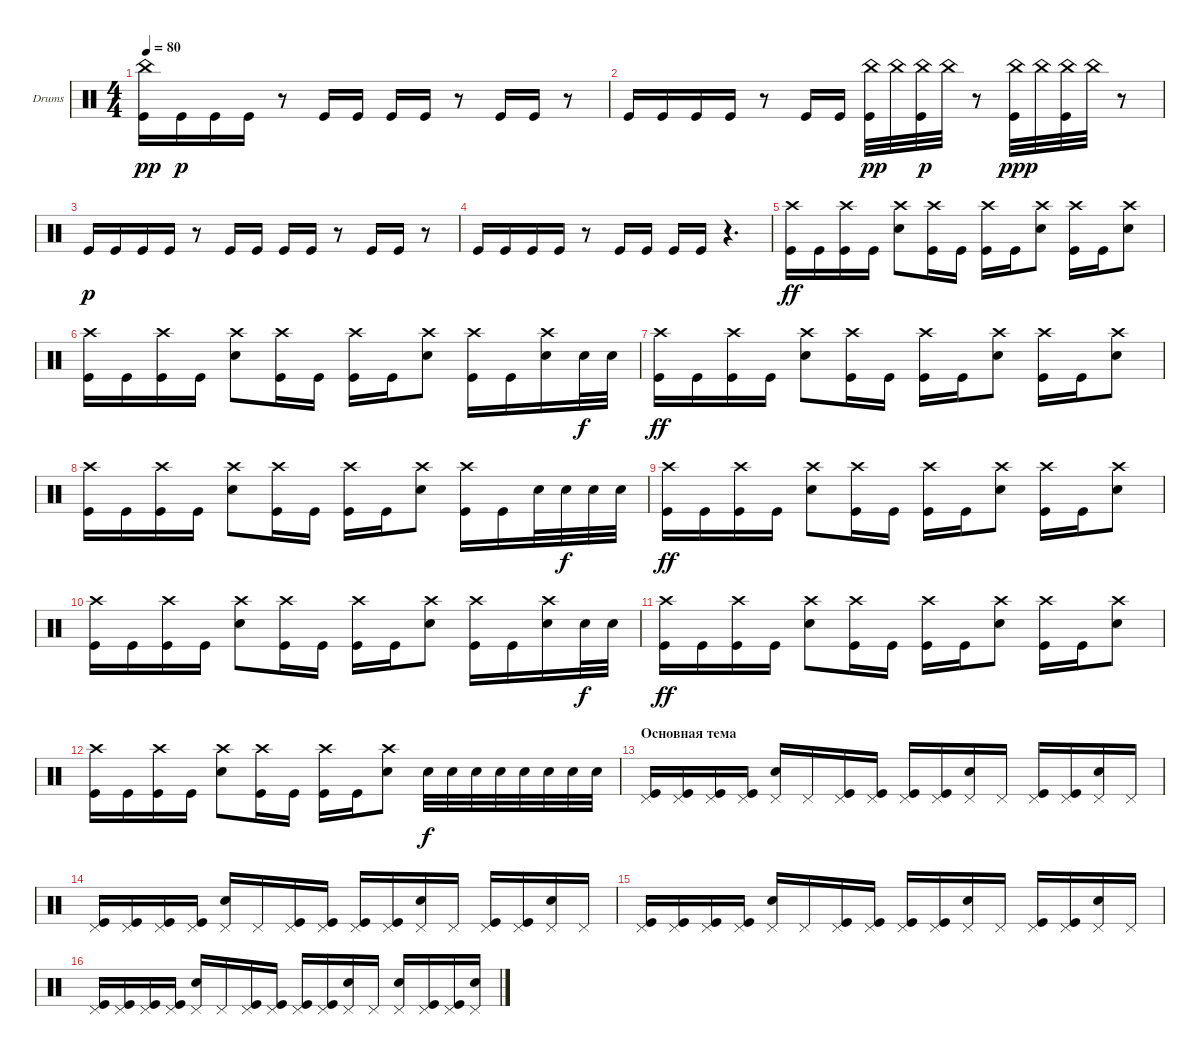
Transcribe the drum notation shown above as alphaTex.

\defaultSystemsLayout 4
\bracketExtendMode groupsimilarinstruments
\firstSystemTrackNameOrientation horizontal
\otherSystemsTrackNameOrientation horizontal
\track ("Drumkit" "Drums") {mute instrument percussion}
\staff {score}
\articulation defaults
\ts (4 4)
\tempo 80
\clef neutral
\ks c
("China (hit)" "Kick (hit)").16{dy pp} "Kick (hit)".16{dy p} "Kick (hit)".16 "Kick (hit)".16 r.8 "Kick (hit)".16 "Kick (hit)".16 "Kick (hit)".16 "Kick (hit)".16 r.8 "Kick (hit)".16 "Kick (hit)".16 r.8 |
"Kick (hit)".16 "Kick (hit)".16 "Kick (hit)".16 "Kick (hit)".16 r.8 "Kick (hit)".16 "Kick (hit)".16 ("China (hit)" "Kick (hit)").32{dy pp} "China (hit)".32 ("China (hit)" "Kick (hit)").32{dy p} "China (hit)".32 r.8 ("China (hit)" "Kick (hit)").32{dy ppp} "China (hit)".32 ("China (hit)" "Kick (hit)").32 "China (hit)".32 r.8 |
"Kick (hit)".16{dy p} "Kick (hit)".16 "Kick (hit)".16 "Kick (hit)".16 r.8 "Kick (hit)".16 "Kick (hit)".16 "Kick (hit)".16 "Kick (hit)".16 r.8 "Kick (hit)".16 "Kick (hit)".16 r.8 |
"Kick (hit)".16 "Kick (hit)".16 "Kick (hit)".16 "Kick (hit)".16 r.8 "Kick (hit)".16 "Kick (hit)".16 "Kick (hit)".16 "Kick (hit)".16 r.4{d} |
("Crash high (hit)" "Kick (hit)").16{dy ff} "Kick (hit)".16 ("Crash high (hit)" "Kick (hit)").16 "Kick (hit)".16 ("Crash high (hit)" "Snare (hit) 2").8 ("Crash high (hit)" "Kick (hit)").16 "Kick (hit)".16 ("Crash high (hit)" "Kick (hit)").16 "Kick (hit)".16 ("Crash high (hit)" "Snare (hit) 2").8 ("Crash high (hit)" "Kick (hit)").16 "Kick (hit)".16 ("Crash high (hit)" "Snare (hit) 2").8 |
("Crash high (hit)" "Kick (hit)").16 "Kick (hit)".16 ("Crash high (hit)" "Kick (hit)").16 "Kick (hit)".16 ("Crash high (hit)" "Snare (hit) 2").8 ("Crash high (hit)" "Kick (hit)").16 "Kick (hit)".16 ("Crash high (hit)" "Kick (hit)").16 "Kick (hit)".16 ("Crash high (hit)" "Snare (hit) 2").8 ("Crash high (hit)" "Kick (hit)").16 "Kick (hit)".16 ("Crash high (hit)" "Snare (hit) 2").16 "Snare (hit) 2".32{dy f} "Snare (hit) 2".32 |
("Crash high (hit)" "Kick (hit)").16{dy ff} "Kick (hit)".16 ("Crash high (hit)" "Kick (hit)").16 "Kick (hit)".16 ("Crash high (hit)" "Snare (hit) 2").8 ("Crash high (hit)" "Kick (hit)").16 "Kick (hit)".16 ("Crash high (hit)" "Kick (hit)").16 "Kick (hit)".16 ("Crash high (hit)" "Snare (hit) 2").8 ("Crash high (hit)" "Kick (hit)").16 "Kick (hit)".16 ("Crash high (hit)" "Snare (hit) 2").8 |
("Crash high (hit)" "Kick (hit)").16 "Kick (hit)".16 ("Crash high (hit)" "Kick (hit)").16 "Kick (hit)".16 ("Crash high (hit)" "Snare (hit) 2").8 ("Crash high (hit)" "Kick (hit)").16 "Kick (hit)".16 ("Crash high (hit)" "Kick (hit)").16 "Kick (hit)".16 ("Crash high (hit)" "Snare (hit) 2").8 ("Crash high (hit)" "Kick (hit)").16 "Kick (hit)".16 "Snare (hit) 2".32 "Snare (hit) 2".32{dy f} "Snare (hit) 2".32 "Snare (hit) 2".32 |
("Crash high (hit)" "Kick (hit)").16{dy ff} "Kick (hit)".16 ("Crash high (hit)" "Kick (hit)").16 "Kick (hit)".16 ("Crash high (hit)" "Snare (hit) 2").8 ("Crash high (hit)" "Kick (hit)").16 "Kick (hit)".16 ("Crash high (hit)" "Kick (hit)").16 "Kick (hit)".16 ("Crash high (hit)" "Snare (hit) 2").8 ("Crash high (hit)" "Kick (hit)").16 "Kick (hit)".16 ("Crash high (hit)" "Snare (hit) 2").8 |
("Crash high (hit)" "Kick (hit)").16 "Kick (hit)".16 ("Crash high (hit)" "Kick (hit)").16 "Kick (hit)".16 ("Crash high (hit)" "Snare (hit) 2").8 ("Crash high (hit)" "Kick (hit)").16 "Kick (hit)".16 ("Crash high (hit)" "Kick (hit)").16 "Kick (hit)".16 ("Crash high (hit)" "Snare (hit) 2").8 ("Crash high (hit)" "Kick (hit)").16 "Kick (hit)".16 ("Crash high (hit)" "Snare (hit) 2").16 "Snare (hit) 2".32{dy f} "Snare (hit) 2".32 |
("Crash high (hit)" "Kick (hit)").16{dy ff} "Kick (hit)".16 ("Crash high (hit)" "Kick (hit)").16 "Kick (hit)".16 ("Crash high (hit)" "Snare (hit) 2").8 ("Crash high (hit)" "Kick (hit)").16 "Kick (hit)".16 ("Crash high (hit)" "Kick (hit)").16 "Kick (hit)".16 ("Crash high (hit)" "Snare (hit) 2").8 ("Crash high (hit)" "Kick (hit)").16 "Kick (hit)".16 ("Crash high (hit)" "Snare (hit) 2").8 |
("Crash high (hit)" "Kick (hit)").16 "Kick (hit)".16 ("Crash high (hit)" "Kick (hit)").16 "Kick (hit)".16 ("Crash high (hit)" "Snare (hit) 2").8 ("Crash high (hit)" "Kick (hit)").16 "Kick (hit)".16 ("Crash high (hit)" "Kick (hit)").16 "Kick (hit)".16 ("Crash high (hit)" "Snare (hit) 2").8 "Snare (hit) 2".32{dy f} "Snare (hit) 2".32 "Snare (hit) 2".32 "Snare (hit) 2".32 "Snare (hit) 2".32 "Snare (hit) 2".32 "Snare (hit) 2".32 "Snare (hit) 2".32 |
\section ("" "Основная тема")
("Pedal Hi-Hat (hit)" "Kick (hit)").16 ("Pedal Hi-Hat (hit)" "Kick (hit)").16 ("Pedal Hi-Hat (hit)" "Kick (hit)").16 ("Pedal Hi-Hat (hit)" "Kick (hit)").16 ("Pedal Hi-Hat (hit)" "Snare (hit) 2").16 "Pedal Hi-Hat (hit)".16 ("Pedal Hi-Hat (hit)" "Kick (hit)").16 ("Pedal Hi-Hat (hit)" "Kick (hit)").16 ("Pedal Hi-Hat (hit)" "Kick (hit)").16 ("Pedal Hi-Hat (hit)" "Kick (hit)").16 ("Pedal Hi-Hat (hit)" "Snare (hit) 2").16 "Pedal Hi-Hat (hit)".16 ("Pedal Hi-Hat (hit)" "Kick (hit)").16 ("Pedal Hi-Hat (hit)" "Kick (hit)").16 ("Pedal Hi-Hat (hit)" "Snare (hit) 2").16 "Pedal Hi-Hat (hit)".16 |
("Pedal Hi-Hat (hit)" "Kick (hit)").16 ("Pedal Hi-Hat (hit)" "Kick (hit)").16 ("Pedal Hi-Hat (hit)" "Kick (hit)").16 ("Pedal Hi-Hat (hit)" "Kick (hit)").16 ("Pedal Hi-Hat (hit)" "Snare (hit) 2").16 "Pedal Hi-Hat (hit)".16 ("Pedal Hi-Hat (hit)" "Kick (hit)").16 ("Pedal Hi-Hat (hit)" "Kick (hit)").16 ("Pedal Hi-Hat (hit)" "Kick (hit)").16 ("Pedal Hi-Hat (hit)" "Kick (hit)").16 ("Pedal Hi-Hat (hit)" "Snare (hit) 2").16 "Pedal Hi-Hat (hit)".16 ("Pedal Hi-Hat (hit)" "Kick (hit)").16 ("Pedal Hi-Hat (hit)" "Kick (hit)").16 ("Pedal Hi-Hat (hit)" "Snare (hit) 2").16 "Pedal Hi-Hat (hit)".16 |
("Pedal Hi-Hat (hit)" "Kick (hit)").16 ("Pedal Hi-Hat (hit)" "Kick (hit)").16 ("Pedal Hi-Hat (hit)" "Kick (hit)").16 ("Pedal Hi-Hat (hit)" "Kick (hit)").16 ("Pedal Hi-Hat (hit)" "Snare (hit) 2").16 "Pedal Hi-Hat (hit)".16 ("Pedal Hi-Hat (hit)" "Kick (hit)").16 ("Pedal Hi-Hat (hit)" "Kick (hit)").16 ("Pedal Hi-Hat (hit)" "Kick (hit)").16 ("Pedal Hi-Hat (hit)" "Kick (hit)").16 ("Pedal Hi-Hat (hit)" "Snare (hit) 2").16 "Pedal Hi-Hat (hit)".16 ("Pedal Hi-Hat (hit)" "Kick (hit)").16 ("Pedal Hi-Hat (hit)" "Kick (hit)").16 ("Pedal Hi-Hat (hit)" "Snare (hit) 2").16 "Pedal Hi-Hat (hit)".16 |
("Pedal Hi-Hat (hit)" "Kick (hit)").16 ("Pedal Hi-Hat (hit)" "Kick (hit)").16 ("Pedal Hi-Hat (hit)" "Kick (hit)").16 ("Pedal Hi-Hat (hit)" "Kick (hit)").16 ("Pedal Hi-Hat (hit)" "Snare (hit) 2").16 "Pedal Hi-Hat (hit)".16 ("Pedal Hi-Hat (hit)" "Kick (hit)").16 ("Pedal Hi-Hat (hit)" "Kick (hit)").16 ("Pedal Hi-Hat (hit)" "Kick (hit)").16 ("Pedal Hi-Hat (hit)" "Kick (hit)").16 ("Pedal Hi-Hat (hit)" "Snare (hit) 2").16 "Pedal Hi-Hat (hit)".16 ("Pedal Hi-Hat (hit)" "Snare (hit) 2").16 ("Pedal Hi-Hat (hit)" "Kick (hit)").16 ("Pedal Hi-Hat (hit)" "Kick (hit)").16 ("Pedal Hi-Hat (hit)" "Snare (hit) 2").16
